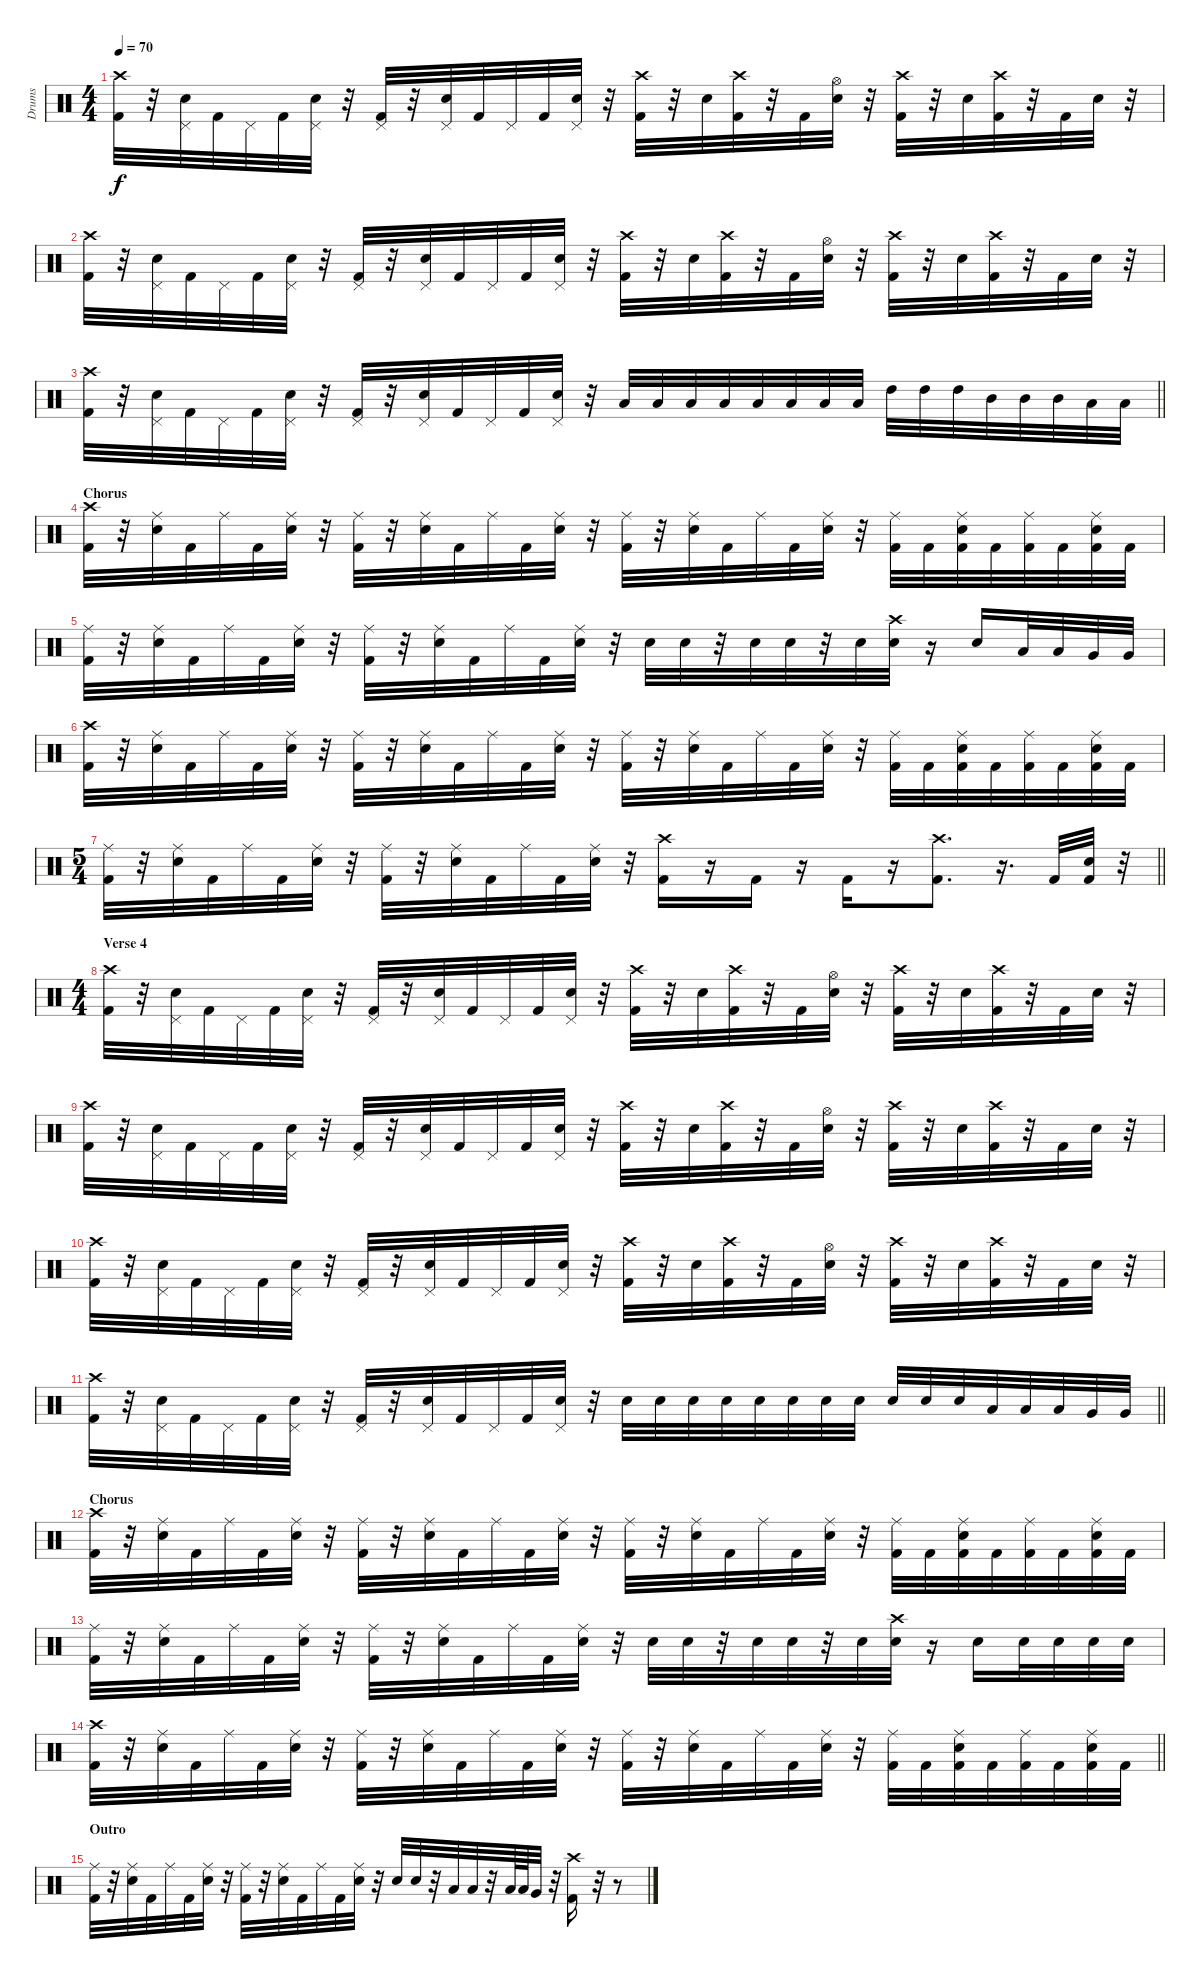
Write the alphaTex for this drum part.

\track ("Drums" "Drums") {instrument percussion}
\staff {score}
\articulation defaults
\ts (4 4)
\tempo 70
\clef neutral
\ks c
("Crash high (hit)" "Kick (hit) 2").32{dy f} r.32 ("Pedal Hi-Hat (hit)" "Snare (hit) 2").32 "Kick (hit) 2".32 "Pedal Hi-Hat (hit)".32 "Kick (hit) 2".32 ("Pedal Hi-Hat (hit)" "Snare (hit) 2").32 r.32 ("Pedal Hi-Hat (hit)" "Kick (hit) 2").32 r.32 ("Pedal Hi-Hat (hit)" "Snare (hit) 2").32 "Kick (hit) 2".32 "Pedal Hi-Hat (hit)".32 "Kick (hit) 2".32 ("Pedal Hi-Hat (hit)" "Snare (hit) 2").32 r.32 ("Crash high (hit)" "Kick (hit) 2").32 r.32 "Snare (hit) 2".32 ("Crash high (hit)" "Kick (hit) 2").32 r.32 "Kick (hit) 2".32 ("Hi-Hat (open)" "Snare (hit) 2").32 r.32 ("Crash high (hit)" "Kick (hit) 2").32 r.32 "Snare (hit) 2".32 ("Crash high (hit)" "Kick (hit) 2").32 r.32 "Kick (hit) 2".32 "Snare (hit) 2".32 r.32 |
("Crash high (hit)" "Kick (hit) 2").32 r.32 ("Pedal Hi-Hat (hit)" "Snare (hit) 2").32 "Kick (hit) 2".32 "Pedal Hi-Hat (hit)".32 "Kick (hit) 2".32 ("Pedal Hi-Hat (hit)" "Snare (hit) 2").32 r.32 ("Pedal Hi-Hat (hit)" "Kick (hit) 2").32 r.32 ("Pedal Hi-Hat (hit)" "Snare (hit) 2").32 "Kick (hit) 2".32 "Pedal Hi-Hat (hit)".32 "Kick (hit) 2".32 ("Pedal Hi-Hat (hit)" "Snare (hit) 2").32 r.32 ("Crash high (hit)" "Kick (hit) 2").32 r.32 "Snare (hit) 2".32 ("Crash high (hit)" "Kick (hit) 2").32 r.32 "Kick (hit) 2".32 ("Hi-Hat (open)" "Snare (hit) 2").32 r.32 ("Crash high (hit)" "Kick (hit) 2").32 r.32 "Snare (hit) 2".32 ("Crash high (hit)" "Kick (hit) 2").32 r.32 "Kick (hit) 2".32 "Snare (hit) 2".32 r.32 |
\barLineRight lightlight
("Crash high (hit)" "Kick (hit) 2").32 r.32 ("Pedal Hi-Hat (hit)" "Snare (hit) 2").32 "Kick (hit) 2".32 "Pedal Hi-Hat (hit)".32 "Kick (hit) 2".32 ("Pedal Hi-Hat (hit)" "Snare (hit) 2").32 r.32 ("Pedal Hi-Hat (hit)" "Kick (hit) 2").32 r.32 ("Pedal Hi-Hat (hit)" "Snare (hit) 2").32 "Kick (hit) 2".32 "Pedal Hi-Hat (hit)".32 "Kick (hit) 2".32 ("Pedal Hi-Hat (hit)" "Snare (hit) 2").32 r.32 "Low Tom (hit)".32 "Low Tom (hit)".32 "Low Tom (hit)".32 "Low Tom (hit)".32 "Low Tom (hit)".32 "Low Tom (hit)".32 "Low Tom (hit)".32 "Low Tom (hit)".32 "High Tom (hit)".32 "High Tom (hit)".32 "High Tom (hit)".32 "Mid Tom (hit)".32 "Mid Tom (hit)".32 "Mid Tom (hit)".32 "Low Tom (hit)".32 "Low Tom (hit)".32 |
\section ("" "Chorus")
("Crash high (hit)" "Kick (hit) 2").32 r.32 ("Ride (middle)" "Snare (hit) 2").32 "Kick (hit) 2".32 "Ride (middle)".32 "Kick (hit) 2".32 ("Ride (middle)" "Snare (hit) 2").32 r.32 ("Ride (middle)" "Kick (hit) 2").32 r.32 ("Ride (middle)" "Snare (hit) 2").32 "Kick (hit) 2".32 "Ride (middle)".32 "Kick (hit) 2".32 ("Ride (middle)" "Snare (hit) 2").32 r.32 ("Ride (middle)" "Kick (hit) 2").32 r.32 ("Ride (middle)" "Snare (hit) 2").32 "Kick (hit) 2".32 "Ride (middle)".32 "Kick (hit) 2".32 ("Ride (middle)" "Snare (hit) 2").32 r.32 ("Ride (middle)" "Kick (hit) 2").32 "Kick (hit) 2".32 ("Ride (middle)" "Snare (hit) 2" "Kick (hit) 2").32 "Kick (hit) 2".32 ("Ride (middle)" "Kick (hit) 2").32 "Kick (hit) 2".32 ("Ride (middle)" "Snare (hit) 2" "Kick (hit) 2").32 "Kick (hit) 2".32 |
("Ride (middle)" "Kick (hit) 2").32 r.32 ("Ride (middle)" "Snare (hit) 2").32 "Kick (hit) 2".32 "Ride (middle)".32 "Kick (hit) 2".32 ("Ride (middle)" "Snare (hit) 2").32 r.32 ("Ride (middle)" "Kick (hit) 2").32 r.32 ("Ride (middle)" "Snare (hit) 2").32 "Kick (hit) 2".32 "Ride (middle)".32 "Kick (hit) 2".32 ("Ride (middle)" "Snare (hit) 2").32 r.32 "Snare (hit) 2".32 "Snare (hit) 2".32 r.32 "Snare (hit) 2".32 "Snare (hit) 2".32 r.32 "Snare (hit) 2".32 ("Crash high (hit)" "Snare (hit) 2").32 r.16 "Snare (hit) 2".16 "Low Tom (hit)".32 "Low Tom (hit)".32 "Very Low Tom (hit)".32 "Very Low Tom (hit)".32 |
("Crash high (hit)" "Kick (hit) 2").32 r.32 ("Ride (middle)" "Snare (hit) 2").32 "Kick (hit) 2".32 "Ride (middle)".32 "Kick (hit) 2".32 ("Ride (middle)" "Snare (hit) 2").32 r.32 ("Ride (middle)" "Kick (hit) 2").32 r.32 ("Ride (middle)" "Snare (hit) 2").32 "Kick (hit) 2".32 "Ride (middle)".32 "Kick (hit) 2".32 ("Ride (middle)" "Snare (hit) 2").32 r.32 ("Ride (middle)" "Kick (hit) 2").32 r.32 ("Ride (middle)" "Snare (hit) 2").32 "Kick (hit) 2".32 "Ride (middle)".32 "Kick (hit) 2".32 ("Ride (middle)" "Snare (hit) 2").32 r.32 ("Ride (middle)" "Kick (hit) 2").32 "Kick (hit) 2".32 ("Ride (middle)" "Snare (hit) 2" "Kick (hit) 2").32 "Kick (hit) 2".32 ("Ride (middle)" "Kick (hit) 2").32 "Kick (hit) 2".32 ("Ride (middle)" "Snare (hit) 2" "Kick (hit) 2").32 "Kick (hit) 2".32 |
\ts (5 4)
\barLineRight lightlight
("Ride (middle)" "Kick (hit) 2").32 r.32 ("Ride (middle)" "Snare (hit) 2").32 "Kick (hit) 2".32 "Ride (middle)".32 "Kick (hit) 2".32 ("Ride (middle)" "Snare (hit) 2").32 r.32 ("Ride (middle)" "Kick (hit) 2").32 r.32 ("Ride (middle)" "Snare (hit) 2").32 "Kick (hit) 2".32 "Ride (middle)".32 "Kick (hit) 2".32 ("Ride (middle)" "Snare (hit) 2").32 r.32 ("Crash high (hit)" "Kick (hit) 2").16 r.16 "Kick (hit) 2".16 r.16 "Kick (hit) 2".16 r.16 ("Crash high (hit)" "Kick (hit) 2").8{d} r.16{d} "Kick (hit) 2".32 ("Snare (hit) 2" "Kick (hit) 2").32 r.32 |
\ts (4 4)
\section ("" "Verse 4")
("Crash high (hit)" "Kick (hit) 2").32 r.32 ("Pedal Hi-Hat (hit)" "Snare (hit) 2").32 "Kick (hit) 2".32 "Pedal Hi-Hat (hit)".32 "Kick (hit) 2".32 ("Pedal Hi-Hat (hit)" "Snare (hit) 2").32 r.32 ("Pedal Hi-Hat (hit)" "Kick (hit) 2").32 r.32 ("Pedal Hi-Hat (hit)" "Snare (hit) 2").32 "Kick (hit) 2".32 "Pedal Hi-Hat (hit)".32 "Kick (hit) 2".32 ("Pedal Hi-Hat (hit)" "Snare (hit) 2").32 r.32 ("Crash high (hit)" "Kick (hit) 2").32 r.32 "Snare (hit) 2".32 ("Crash high (hit)" "Kick (hit) 2").32 r.32 "Kick (hit) 2".32 ("Hi-Hat (open)" "Snare (hit) 2").32 r.32 ("Crash high (hit)" "Kick (hit) 2").32 r.32 "Snare (hit) 2".32 ("Crash high (hit)" "Kick (hit) 2").32 r.32 "Kick (hit) 2".32 "Snare (hit) 2".32 r.32 |
("Crash high (hit)" "Kick (hit) 2").32 r.32 ("Pedal Hi-Hat (hit)" "Snare (hit) 2").32 "Kick (hit) 2".32 "Pedal Hi-Hat (hit)".32 "Kick (hit) 2".32 ("Pedal Hi-Hat (hit)" "Snare (hit) 2").32 r.32 ("Pedal Hi-Hat (hit)" "Kick (hit) 2").32 r.32 ("Pedal Hi-Hat (hit)" "Snare (hit) 2").32 "Kick (hit) 2".32 "Pedal Hi-Hat (hit)".32 "Kick (hit) 2".32 ("Pedal Hi-Hat (hit)" "Snare (hit) 2").32 r.32 ("Crash high (hit)" "Kick (hit) 2").32 r.32 "Snare (hit) 2".32 ("Crash high (hit)" "Kick (hit) 2").32 r.32 "Kick (hit) 2".32 ("Hi-Hat (open)" "Snare (hit) 2").32 r.32 ("Crash high (hit)" "Kick (hit) 2").32 r.32 "Snare (hit) 2".32 ("Crash high (hit)" "Kick (hit) 2").32 r.32 "Kick (hit) 2".32 "Snare (hit) 2".32 r.32 |
("Crash high (hit)" "Kick (hit) 2").32 r.32 ("Pedal Hi-Hat (hit)" "Snare (hit) 2").32 "Kick (hit) 2".32 "Pedal Hi-Hat (hit)".32 "Kick (hit) 2".32 ("Pedal Hi-Hat (hit)" "Snare (hit) 2").32 r.32 ("Pedal Hi-Hat (hit)" "Kick (hit) 2").32 r.32 ("Pedal Hi-Hat (hit)" "Snare (hit) 2").32 "Kick (hit) 2".32 "Pedal Hi-Hat (hit)".32 "Kick (hit) 2".32 ("Pedal Hi-Hat (hit)" "Snare (hit) 2").32 r.32 ("Crash high (hit)" "Kick (hit) 2").32 r.32 "Snare (hit) 2".32 ("Crash high (hit)" "Kick (hit) 2").32 r.32 "Kick (hit) 2".32 ("Hi-Hat (open)" "Snare (hit) 2").32 r.32 ("Crash high (hit)" "Kick (hit) 2").32 r.32 "Snare (hit) 2".32 ("Crash high (hit)" "Kick (hit) 2").32 r.32 "Kick (hit) 2".32 "Snare (hit) 2".32 r.32 |
\barLineRight lightlight
("Crash high (hit)" "Kick (hit) 2").32 r.32 ("Pedal Hi-Hat (hit)" "Snare (hit) 2").32 "Kick (hit) 2".32 "Pedal Hi-Hat (hit)".32 "Kick (hit) 2".32 ("Pedal Hi-Hat (hit)" "Snare (hit) 2").32 r.32 ("Pedal Hi-Hat (hit)" "Kick (hit) 2").32 r.32 ("Pedal Hi-Hat (hit)" "Snare (hit) 2").32 "Kick (hit) 2".32 "Pedal Hi-Hat (hit)".32 "Kick (hit) 2".32 ("Pedal Hi-Hat (hit)" "Snare (hit) 2").32 r.32 "Snare (hit) 2".32 "Snare (hit) 2".32 "Snare (hit) 2".32 "Snare (hit) 2".32 "Snare (hit) 2".32 "Snare (hit) 2".32 "Snare (hit) 2".32 "Snare (hit) 2".32 "Snare (hit) 2".32 "Snare (hit) 2".32 "Snare (hit) 2".32 "Low Tom (hit)".32 "Low Tom (hit)".32 "Low Tom (hit)".32 "Very Low Tom (hit)".32 "Very Low Tom (hit)".32 |
\section ("" "Chorus")
("Crash high (hit)" "Kick (hit) 2").32 r.32 ("Ride (middle)" "Snare (hit) 2").32 "Kick (hit) 2".32 "Ride (middle)".32 "Kick (hit) 2".32 ("Ride (middle)" "Snare (hit) 2").32 r.32 ("Ride (middle)" "Kick (hit) 2").32 r.32 ("Ride (middle)" "Snare (hit) 2").32 "Kick (hit) 2".32 "Ride (middle)".32 "Kick (hit) 2".32 ("Ride (middle)" "Snare (hit) 2").32 r.32 ("Ride (middle)" "Kick (hit) 2").32 r.32 ("Ride (middle)" "Snare (hit) 2").32 "Kick (hit) 2".32 "Ride (middle)".32 "Kick (hit) 2".32 ("Ride (middle)" "Snare (hit) 2").32 r.32 ("Ride (middle)" "Kick (hit) 2").32 "Kick (hit) 2".32 ("Ride (middle)" "Snare (hit) 2" "Kick (hit) 2").32 "Kick (hit) 2".32 ("Ride (middle)" "Kick (hit) 2").32 "Kick (hit) 2".32 ("Ride (middle)" "Snare (hit) 2" "Kick (hit) 2").32 "Kick (hit) 2".32 |
("Ride (middle)" "Kick (hit) 2").32 r.32 ("Ride (middle)" "Snare (hit) 2").32 "Kick (hit) 2".32 "Ride (middle)".32 "Kick (hit) 2".32 ("Ride (middle)" "Snare (hit) 2").32 r.32 ("Ride (middle)" "Kick (hit) 2").32 r.32 ("Ride (middle)" "Snare (hit) 2").32 "Kick (hit) 2".32 "Ride (middle)".32 "Kick (hit) 2".32 ("Ride (middle)" "Snare (hit) 2").32 r.32 "Snare (hit) 2".32 "Snare (hit) 2".32 r.32 "Snare (hit) 2".32 "Snare (hit) 2".32 r.32 "Snare (hit) 2".32 ("Crash high (hit)" "Snare (hit) 2").32 r.16 "Snare (hit) 2".16 "Snare (hit) 2".32 "Snare (hit) 2".32 "Snare (hit) 2".32 "Snare (hit) 2".32 |
\barLineRight lightlight
("Crash high (hit)" "Kick (hit) 2").32 r.32 ("Ride (middle)" "Snare (hit) 2").32 "Kick (hit) 2".32 "Ride (middle)".32 "Kick (hit) 2".32 ("Ride (middle)" "Snare (hit) 2").32 r.32 ("Ride (middle)" "Kick (hit) 2").32 r.32 ("Ride (middle)" "Snare (hit) 2").32 "Kick (hit) 2".32 "Ride (middle)".32 "Kick (hit) 2".32 ("Ride (middle)" "Snare (hit) 2").32 r.32 ("Ride (middle)" "Kick (hit) 2").32 r.32 ("Ride (middle)" "Snare (hit) 2").32 "Kick (hit) 2".32 "Ride (middle)".32 "Kick (hit) 2".32 ("Ride (middle)" "Snare (hit) 2").32 r.32 ("Ride (middle)" "Kick (hit) 2").32 "Kick (hit) 2".32 ("Ride (middle)" "Snare (hit) 2" "Kick (hit) 2").32 "Kick (hit) 2".32 ("Ride (middle)" "Kick (hit) 2").32 "Kick (hit) 2".32 ("Ride (middle)" "Snare (hit) 2" "Kick (hit) 2").32 "Kick (hit) 2".32 |
\section ("" "Outro")
("Ride (middle)" "Kick (hit) 2").32 r.32 ("Ride (middle)" "Snare (hit) 2").32 "Kick (hit) 2".32 "Ride (middle)".32 "Kick (hit) 2".32 ("Ride (middle)" "Snare (hit) 2").32 r.32 ("Ride (middle)" "Kick (hit) 2").32 r.32 ("Ride (middle)" "Snare (hit) 2").32 "Kick (hit) 2".32 "Ride (middle)".32 "Kick (hit) 2".32 ("Ride (middle)" "Snare (hit) 2").32 r.32 "Snare (hit) 2".32 "Snare (hit) 2".32 r.32 "Low Tom (hit)".32 "Low Tom (hit)".32 r.32 "Low Tom (hit)".64 "Low Tom (hit)".64 "Very Low Tom (hit)".32 r.32 ("Crash high (hit)" "Kick (hit) 2").16 r.32 r.8
